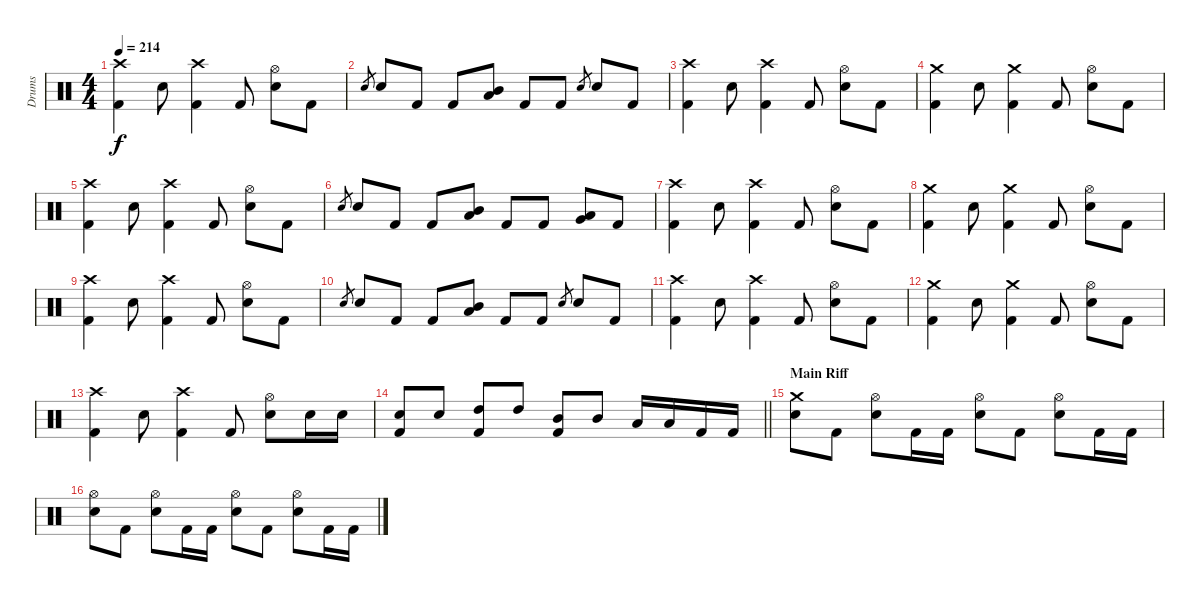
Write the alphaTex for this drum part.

\track ("Drums" "Drums") {instrument percussion}
\staff {score}
\articulation defaults
\ts (4 4)
\tempo 214
\clef neutral
\ks c
("Crash high (hit)" "Kick (hit) 2").4{dy f} "Electric Snare (hit)".8 ("Crash high (hit)" "Kick (hit) 2").4 "Kick (hit) 2".8 ("Hi-Hat (open)" "Electric Snare (hit)").8 "Kick (hit) 2".8 |
"Electric Snare (hit)".8{gr} "Electric Snare (hit)".8 "Kick (hit) 2".8 "Kick (hit) 2".8 ("Mid Tom (hit)" "Low Tom (hit)").8 "Kick (hit) 2".8 "Kick (hit) 2".8 "Electric Snare (hit)".8{gr} "Electric Snare (hit)".8 "Kick (hit) 2".8 |
("Crash high (hit)" "Kick (hit) 2").4 "Electric Snare (hit)".8 ("Crash high (hit)" "Kick (hit) 2").4 "Kick (hit) 2".8 ("Hi-Hat (open)" "Electric Snare (hit)").8 "Kick (hit) 2".8 |
("Crash medium (hit)" "Kick (hit) 2").4 "Electric Snare (hit)".8 ("Crash medium (hit)" "Kick (hit) 2").4 "Kick (hit) 2".8 ("Hi-Hat (open)" "Electric Snare (hit)").8 "Kick (hit) 2".8 |
("Crash high (hit)" "Kick (hit) 2").4 "Electric Snare (hit)".8 ("Crash high (hit)" "Kick (hit) 2").4 "Kick (hit) 2".8 ("Hi-Hat (open)" "Electric Snare (hit)").8 "Kick (hit) 2".8 |
"Electric Snare (hit)".8{gr} "Electric Snare (hit)".8 "Kick (hit) 2".8 "Kick (hit) 2".8 ("Mid Tom (hit)" "Low Tom (hit)").8 "Kick (hit) 2".8 "Kick (hit) 2".8 ("Low Tom (hit)" "Very Low Tom (hit)").8 "Kick (hit) 2".8 |
("Crash high (hit)" "Kick (hit) 2").4 "Electric Snare (hit)".8 ("Crash high (hit)" "Kick (hit) 2").4 "Kick (hit) 2".8 ("Hi-Hat (open)" "Electric Snare (hit)").8 "Kick (hit) 2".8 |
("Crash medium (hit)" "Kick (hit) 2").4 "Electric Snare (hit)".8 ("Crash medium (hit)" "Kick (hit) 2").4 "Kick (hit) 2".8 ("Hi-Hat (open)" "Electric Snare (hit)").8 "Kick (hit) 2".8 |
("Crash high (hit)" "Kick (hit) 2").4 "Electric Snare (hit)".8 ("Crash high (hit)" "Kick (hit) 2").4 "Kick (hit) 2".8 ("Hi-Hat (open)" "Electric Snare (hit)").8 "Kick (hit) 2".8 |
"Electric Snare (hit)".8{gr} "Electric Snare (hit)".8 "Kick (hit) 2".8 "Kick (hit) 2".8 ("Mid Tom (hit)" "Low Tom (hit)").8 "Kick (hit) 2".8 "Kick (hit) 2".8 "Electric Snare (hit)".8{gr} "Electric Snare (hit)".8 "Kick (hit) 2".8 |
("Crash high (hit)" "Kick (hit) 2").4 "Electric Snare (hit)".8 ("Crash high (hit)" "Kick (hit) 2").4 "Kick (hit) 2".8 ("Hi-Hat (open)" "Electric Snare (hit)").8 "Kick (hit) 2".8 |
("Crash medium (hit)" "Kick (hit) 2").4 "Electric Snare (hit)".8 ("Crash medium (hit)" "Kick (hit) 2").4 "Kick (hit) 2".8 ("Hi-Hat (open)" "Electric Snare (hit)").8 "Kick (hit) 2".8 |
("Crash high (hit)" "Kick (hit) 2").4 "Electric Snare (hit)".8 ("Crash high (hit)" "Kick (hit) 2").4 "Kick (hit) 2".8 ("Hi-Hat (open)" "Electric Snare (hit)").8 "Electric Snare (hit)".16 "Electric Snare (hit)".16 |
\barLineRight lightlight
("Electric Snare (hit)" "Kick (hit) 2").8 "Electric Snare (hit)".8 ("High Tom (hit)" "Kick (hit) 2").8 "High Tom (hit)".8 ("Mid Tom (hit)" "Kick (hit) 2").8 "Mid Tom (hit)".8 "Low Tom (hit)".16 "Low Tom (hit)".16 "Kick (hit) 2".16 "Kick (hit) 2".16 |
\section ("" "Main Riff")
("Crash medium (hit)" "Electric Snare (hit)").8 "Kick (hit) 2".8 ("Hi-Hat (open)" "Electric Snare (hit)").8 "Kick (hit) 2".16 "Kick (hit) 2".16 ("Hi-Hat (open)" "Electric Snare (hit)").8 "Kick (hit) 2".8 ("Hi-Hat (open)" "Electric Snare (hit)").8 "Kick (hit) 2".16 "Kick (hit) 2".16 |
("Hi-Hat (open)" "Electric Snare (hit)").8 "Kick (hit) 2".8 ("Hi-Hat (open)" "Electric Snare (hit)").8 "Kick (hit) 2".16 "Kick (hit) 2".16 ("Hi-Hat (open)" "Electric Snare (hit)").8 "Kick (hit) 2".8 ("Hi-Hat (open)" "Electric Snare (hit)").8 "Kick (hit) 2".16 "Kick (hit) 2".16
